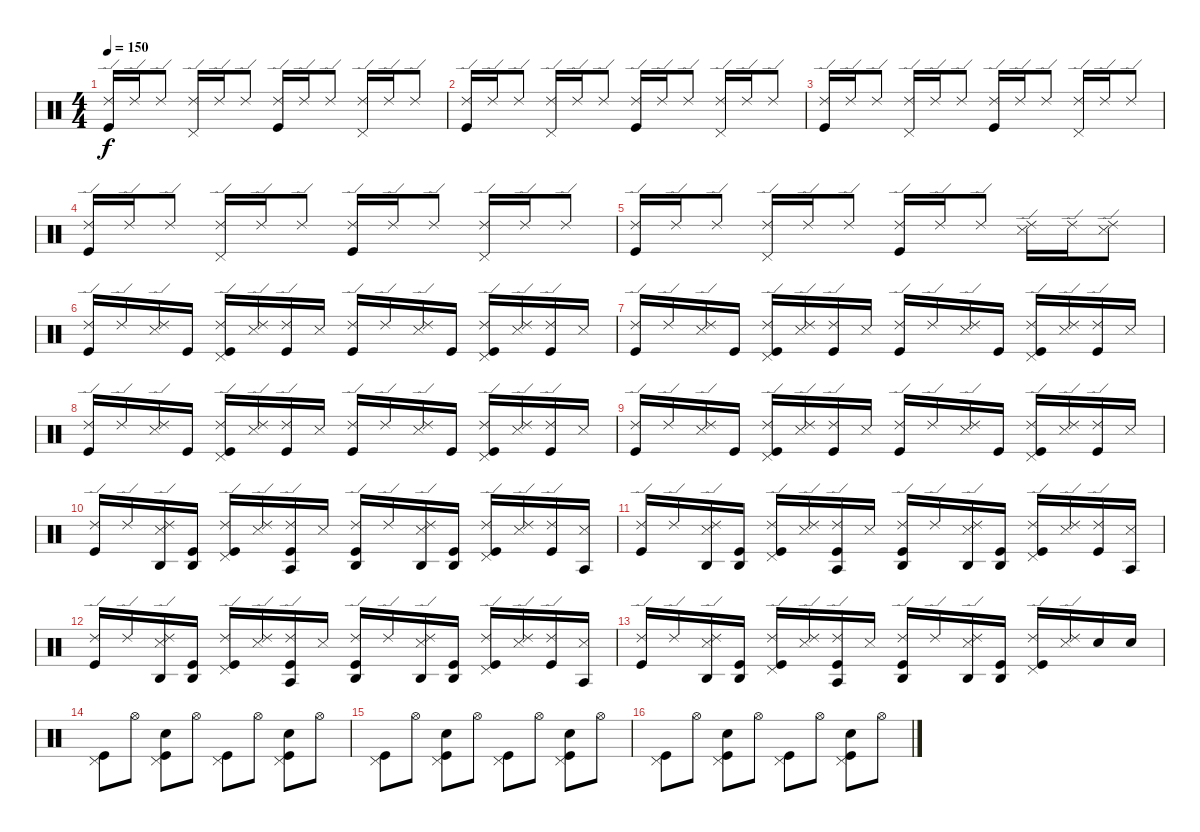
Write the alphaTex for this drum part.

\track "" {instrument percussion}
\staff {score}
\articulation defaults
\ts (4 4)
\tempo 150
\clef neutral
\ks c
("Ride (edge) 2" "Kick (hit)").16{dy f} "Ride (edge) 2".16 "Ride (edge) 2".8 ("Ride (edge) 2" "Pedal Hi-Hat (hit)").16 "Ride (edge) 2".16 "Ride (edge) 2".8 ("Ride (edge) 2" "Kick (hit)").16 "Ride (edge) 2".16 "Ride (edge) 2".8 ("Ride (edge) 2" "Pedal Hi-Hat (hit)").16 "Ride (edge) 2".16 "Ride (edge) 2".8 |
("Ride (edge) 2" "Kick (hit)").16 "Ride (edge) 2".16 "Ride (edge) 2".8 ("Ride (edge) 2" "Pedal Hi-Hat (hit)").16 "Ride (edge) 2".16 "Ride (edge) 2".8 ("Ride (edge) 2" "Kick (hit)").16 "Ride (edge) 2".16 "Ride (edge) 2".8 ("Ride (edge) 2" "Pedal Hi-Hat (hit)").16 "Ride (edge) 2".16 "Ride (edge) 2".8 |
("Ride (edge) 2" "Kick (hit)").16 "Ride (edge) 2".16 "Ride (edge) 2".8 ("Ride (edge) 2" "Pedal Hi-Hat (hit)").16 "Ride (edge) 2".16 "Ride (edge) 2".8 ("Ride (edge) 2" "Kick (hit)").16 "Ride (edge) 2".16 "Ride (edge) 2".8 ("Ride (edge) 2" "Pedal Hi-Hat (hit)").16 "Ride (edge) 2".16 "Ride (edge) 2".8 |
("Ride (edge) 2" "Kick (hit)").16 "Ride (edge) 2".16 "Ride (edge) 2".8 ("Ride (edge) 2" "Pedal Hi-Hat (hit)").16 "Ride (edge) 2".16 "Ride (edge) 2".8 ("Ride (edge) 2" "Kick (hit)").16 "Ride (edge) 2".16 "Ride (edge) 2".8 ("Ride (edge) 2" "Pedal Hi-Hat (hit)").16 "Ride (edge) 2".16 "Ride (edge) 2".8 |
("Ride (edge) 2" "Kick (hit)").16 "Ride (edge) 2".16 "Ride (edge) 2".8 ("Ride (edge) 2" "Pedal Hi-Hat (hit)").16 "Ride (edge) 2".16 "Ride (edge) 2".8 ("Ride (edge) 2" "Kick (hit)").16 "Ride (edge) 2".16 "Ride (edge) 2".8 ("Ride (edge) 2" "Snare (side stick) 3").16 "Ride (edge) 2".16 ("Ride (edge) 2" "Snare (side stick) 3").8 |
("Ride (edge) 2" "Kick (hit)").16 "Ride (edge) 2".16 ("Ride (edge) 2" "Snare (side stick) 3").16 "Kick (hit)".16 ("Ride (edge) 2" "Pedal Hi-Hat (hit)" "Kick (hit)").16 ("Ride (edge) 2" "Snare (side stick) 3").16 ("Ride (edge) 2" "Kick (hit)").16 "Snare (side stick) 3".16 ("Ride (edge) 2" "Kick (hit)").16 "Ride (edge) 2".16 ("Ride (edge) 2" "Snare (side stick) 3").16 "Kick (hit)".16 ("Ride (edge) 2" "Pedal Hi-Hat (hit)" "Kick (hit)").16 ("Ride (edge) 2" "Snare (side stick) 3").16 ("Ride (edge) 2" "Kick (hit)").16 "Snare (side stick) 3".16 |
("Ride (edge) 2" "Kick (hit)").16 "Ride (edge) 2".16 ("Ride (edge) 2" "Snare (side stick) 3").16 "Kick (hit)".16 ("Ride (edge) 2" "Pedal Hi-Hat (hit)" "Kick (hit)").16 ("Ride (edge) 2" "Snare (side stick) 3").16 ("Ride (edge) 2" "Kick (hit)").16 "Snare (side stick) 3".16 ("Ride (edge) 2" "Kick (hit)").16 "Ride (edge) 2".16 ("Ride (edge) 2" "Snare (side stick) 3").16 "Kick (hit)".16 ("Ride (edge) 2" "Pedal Hi-Hat (hit)" "Kick (hit)").16 ("Ride (edge) 2" "Snare (side stick) 3").16 ("Ride (edge) 2" "Kick (hit)").16 "Snare (side stick) 3".16 |
("Ride (edge) 2" "Kick (hit)").16 "Ride (edge) 2".16 ("Ride (edge) 2" "Snare (side stick) 3").16 "Kick (hit)".16 ("Ride (edge) 2" "Pedal Hi-Hat (hit)" "Kick (hit)").16 ("Ride (edge) 2" "Snare (side stick) 3").16 ("Ride (edge) 2" "Kick (hit)").16 "Snare (side stick) 3".16 ("Ride (edge) 2" "Kick (hit)").16 "Ride (edge) 2".16 ("Ride (edge) 2" "Snare (side stick) 3").16 "Kick (hit)".16 ("Ride (edge) 2" "Pedal Hi-Hat (hit)" "Kick (hit)").16 ("Ride (edge) 2" "Snare (side stick) 3").16 ("Ride (edge) 2" "Kick (hit)").16 "Snare (side stick) 3".16 |
("Ride (edge) 2" "Kick (hit)").16 "Ride (edge) 2".16 ("Ride (edge) 2" "Snare (side stick) 3").16 "Kick (hit)".16 ("Ride (edge) 2" "Pedal Hi-Hat (hit)" "Kick (hit)").16 ("Ride (edge) 2" "Snare (side stick) 3").16 ("Ride (edge) 2" "Kick (hit)").16 "Snare (side stick) 3".16 ("Ride (edge) 2" "Kick (hit)").16 "Ride (edge) 2".16 ("Ride (edge) 2" "Snare (side stick) 3").16 "Kick (hit)".16 ("Ride (edge) 2" "Pedal Hi-Hat (hit)" "Kick (hit)").16 ("Ride (edge) 2" "Snare (side stick) 3").16 ("Ride (edge) 2" "Kick (hit)").16 "Snare (side stick) 3".16 |
("Ride (edge) 2" "Kick (hit)").16 "Ride (edge) 2".16 ("Ride (edge) 2" "Snare (side stick) 3" "Agogo high (hit)").16 ("Agogo high (hit)" "Kick (hit)").16 ("Ride (edge) 2" "Pedal Hi-Hat (hit)" "Kick (hit)").16 ("Ride (edge) 2" "Snare (side stick) 3").16 ("Ride (edge) 2" "Agogo tow (hit)" "Kick (hit)").16 "Snare (side stick) 3".16 ("Ride (edge) 2" "Agogo high (hit)" "Kick (hit)").16 "Ride (edge) 2".16 ("Ride (edge) 2" "Snare (side stick) 3" "Agogo high (hit)").16 ("Agogo high (hit)" "Kick (hit)").16 ("Ride (edge) 2" "Pedal Hi-Hat (hit)" "Kick (hit)").16 ("Ride (edge) 2" "Snare (side stick) 3").16 ("Ride (edge) 2" "Kick (hit)").16 ("Snare (side stick) 3" "Agogo tow (hit)").16 |
("Ride (edge) 2" "Kick (hit)").16 "Ride (edge) 2".16 ("Ride (edge) 2" "Snare (side stick) 3" "Agogo high (hit)").16 ("Agogo high (hit)" "Kick (hit)").16 ("Ride (edge) 2" "Pedal Hi-Hat (hit)" "Kick (hit)").16 ("Ride (edge) 2" "Snare (side stick) 3").16 ("Ride (edge) 2" "Agogo tow (hit)" "Kick (hit)").16 "Snare (side stick) 3".16 ("Ride (edge) 2" "Agogo high (hit)" "Kick (hit)").16 "Ride (edge) 2".16 ("Ride (edge) 2" "Snare (side stick) 3" "Agogo high (hit)").16 ("Agogo high (hit)" "Kick (hit)").16 ("Ride (edge) 2" "Pedal Hi-Hat (hit)" "Kick (hit)").16 ("Ride (edge) 2" "Snare (side stick) 3").16 ("Ride (edge) 2" "Kick (hit)").16 ("Snare (side stick) 3" "Agogo tow (hit)").16 |
("Ride (edge) 2" "Kick (hit)").16 "Ride (edge) 2".16 ("Ride (edge) 2" "Snare (side stick) 3" "Agogo high (hit)").16 ("Agogo high (hit)" "Kick (hit)").16 ("Ride (edge) 2" "Pedal Hi-Hat (hit)" "Kick (hit)").16 ("Ride (edge) 2" "Snare (side stick) 3").16 ("Ride (edge) 2" "Agogo tow (hit)" "Kick (hit)").16 "Snare (side stick) 3".16 ("Ride (edge) 2" "Agogo high (hit)" "Kick (hit)").16 "Ride (edge) 2".16 ("Ride (edge) 2" "Snare (side stick) 3" "Agogo high (hit)").16 ("Agogo high (hit)" "Kick (hit)").16 ("Ride (edge) 2" "Pedal Hi-Hat (hit)" "Kick (hit)").16 ("Ride (edge) 2" "Snare (side stick) 3").16 ("Ride (edge) 2" "Kick (hit)").16 ("Snare (side stick) 3" "Agogo tow (hit)").16 |
("Ride (edge) 2" "Kick (hit)").16 "Ride (edge) 2".16 ("Ride (edge) 2" "Snare (side stick) 3" "Agogo high (hit)").16 ("Agogo high (hit)" "Kick (hit)").16 ("Ride (edge) 2" "Pedal Hi-Hat (hit)" "Kick (hit)").16 ("Ride (edge) 2" "Snare (side stick) 3").16 ("Ride (edge) 2" "Agogo tow (hit)" "Kick (hit)").16 "Snare (side stick) 3".16 ("Ride (edge) 2" "Agogo high (hit)" "Kick (hit)").16 "Ride (edge) 2".16 ("Ride (edge) 2" "Snare (side stick) 3" "Agogo high (hit)").16 ("Agogo high (hit)" "Kick (hit)").16 ("Ride (edge) 2" "Pedal Hi-Hat (hit)" "Kick (hit)").16 ("Ride (edge) 2" "Snare (side stick) 3").16 "Electric Snare (hit)".16 "Electric Snare (hit)".16 |
("Pedal Hi-Hat (hit)" "Kick (hit)").8 "Hi-Hat (open)".8 ("Pedal Hi-Hat (hit)" "Electric Snare (hit)" "Kick (hit)").8 "Hi-Hat (open)".8 ("Pedal Hi-Hat (hit)" "Kick (hit)").8 "Hi-Hat (open)".8 ("Pedal Hi-Hat (hit)" "Electric Snare (hit)" "Kick (hit)").8 "Hi-Hat (open)".8 |
("Pedal Hi-Hat (hit)" "Kick (hit)").8 "Hi-Hat (open)".8 ("Pedal Hi-Hat (hit)" "Electric Snare (hit)" "Kick (hit)").8 "Hi-Hat (open)".8 ("Pedal Hi-Hat (hit)" "Kick (hit)").8 "Hi-Hat (open)".8 ("Pedal Hi-Hat (hit)" "Electric Snare (hit)" "Kick (hit)").8 "Hi-Hat (open)".8 |
("Pedal Hi-Hat (hit)" "Kick (hit)").8 "Hi-Hat (open)".8 ("Pedal Hi-Hat (hit)" "Electric Snare (hit)" "Kick (hit)").8 "Hi-Hat (open)".8 ("Pedal Hi-Hat (hit)" "Kick (hit)").8 "Hi-Hat (open)".8 ("Pedal Hi-Hat (hit)" "Electric Snare (hit)" "Kick (hit)").8 "Hi-Hat (open)".8
